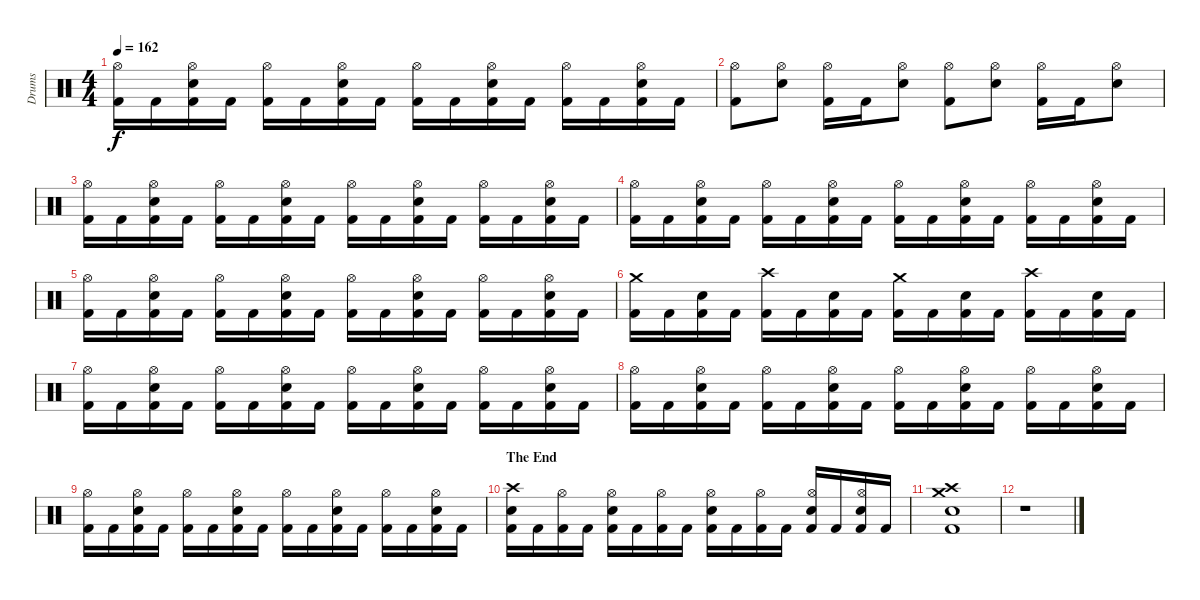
\track ("Drums" "Drums") {instrument percussion}
\staff {score}
\articulation defaults
\ts (4 4)
\tempo 162
\clef neutral
\ks c
("Kick (hit) 2" "Hi-Hat (open)").16{dy f} "Kick (hit) 2".16 ("Kick (hit) 2" "Snare (hit) 2" "Hi-Hat (open)").16 "Kick (hit) 2".16 ("Kick (hit) 2" "Hi-Hat (open)").16 "Kick (hit) 2".16 ("Kick (hit) 2" "Snare (hit) 2" "Hi-Hat (open)").16 "Kick (hit) 2".16 ("Kick (hit) 2" "Hi-Hat (open)").16 "Kick (hit) 2".16 ("Kick (hit) 2" "Snare (hit) 2" "Hi-Hat (open)").16 "Kick (hit) 2".16 ("Kick (hit) 2" "Hi-Hat (open)").16 "Kick (hit) 2".16 ("Kick (hit) 2" "Snare (hit) 2" "Hi-Hat (open)").16 "Kick (hit) 2".16 |
("Kick (hit) 2" "Hi-Hat (open)").8 ("Snare (hit) 2" "Hi-Hat (open)").8 ("Kick (hit) 2" "Hi-Hat (open)").16 "Kick (hit) 2".16 ("Snare (hit) 2" "Hi-Hat (open)").8 ("Kick (hit) 2" "Hi-Hat (open)").8 ("Snare (hit) 2" "Hi-Hat (open)").8 ("Kick (hit) 2" "Hi-Hat (open)").16 "Kick (hit) 2".16 ("Snare (hit) 2" "Hi-Hat (open)").8 |
\section ("" "")
("Kick (hit) 2" "Hi-Hat (open)").16 "Kick (hit) 2".16 ("Kick (hit) 2" "Snare (hit) 2" "Hi-Hat (open)").16 "Kick (hit) 2".16 ("Kick (hit) 2" "Hi-Hat (open)").16 "Kick (hit) 2".16 ("Kick (hit) 2" "Snare (hit) 2" "Hi-Hat (open)").16 "Kick (hit) 2".16 ("Kick (hit) 2" "Hi-Hat (open)").16 "Kick (hit) 2".16 ("Kick (hit) 2" "Snare (hit) 2" "Hi-Hat (open)").16 "Kick (hit) 2".16 ("Kick (hit) 2" "Hi-Hat (open)").16 "Kick (hit) 2".16 ("Kick (hit) 2" "Snare (hit) 2" "Hi-Hat (open)").16 "Kick (hit) 2".16 |
("Kick (hit) 2" "Hi-Hat (open)").16 "Kick (hit) 2".16 ("Kick (hit) 2" "Snare (hit) 2" "Hi-Hat (open)").16 "Kick (hit) 2".16 ("Kick (hit) 2" "Hi-Hat (open)").16 "Kick (hit) 2".16 ("Kick (hit) 2" "Snare (hit) 2" "Hi-Hat (open)").16 "Kick (hit) 2".16 ("Kick (hit) 2" "Hi-Hat (open)").16 "Kick (hit) 2".16 ("Kick (hit) 2" "Snare (hit) 2" "Hi-Hat (open)").16 "Kick (hit) 2".16 ("Kick (hit) 2" "Hi-Hat (open)").16 "Kick (hit) 2".16 ("Kick (hit) 2" "Snare (hit) 2" "Hi-Hat (open)").16 "Kick (hit) 2".16 |
("Kick (hit) 2" "Hi-Hat (open)").16 "Kick (hit) 2".16 ("Kick (hit) 2" "Snare (hit) 2" "Hi-Hat (open)").16 "Kick (hit) 2".16 ("Kick (hit) 2" "Hi-Hat (open)").16 "Kick (hit) 2".16 ("Kick (hit) 2" "Snare (hit) 2" "Hi-Hat (open)").16 "Kick (hit) 2".16 ("Kick (hit) 2" "Hi-Hat (open)").16 "Kick (hit) 2".16 ("Kick (hit) 2" "Snare (hit) 2" "Hi-Hat (open)").16 "Kick (hit) 2".16 ("Kick (hit) 2" "Hi-Hat (open)").16 "Kick (hit) 2".16 ("Kick (hit) 2" "Snare (hit) 2" "Hi-Hat (open)").16 "Kick (hit) 2".16 |
("Kick (hit) 2" "Crash medium (hit)").16 "Kick (hit) 2".16 ("Kick (hit) 2" "Snare (hit) 2").16 "Kick (hit) 2".16 ("Kick (hit) 2" "Crash high (hit)").16 "Kick (hit) 2".16 ("Kick (hit) 2" "Snare (hit) 2").16 "Kick (hit) 2".16 ("Kick (hit) 2" "Crash medium (hit)").16 "Kick (hit) 2".16 ("Kick (hit) 2" "Snare (hit) 2").16 "Kick (hit) 2".16 ("Kick (hit) 2" "Crash high (hit)").16 "Kick (hit) 2".16 ("Kick (hit) 2" "Snare (hit) 2").16 "Kick (hit) 2".16 |
("Kick (hit) 2" "Hi-Hat (open)").16 "Kick (hit) 2".16 ("Kick (hit) 2" "Snare (hit) 2" "Hi-Hat (open)").16 "Kick (hit) 2".16 ("Kick (hit) 2" "Hi-Hat (open)").16 "Kick (hit) 2".16 ("Kick (hit) 2" "Snare (hit) 2" "Hi-Hat (open)").16 "Kick (hit) 2".16 ("Kick (hit) 2" "Hi-Hat (open)").16 "Kick (hit) 2".16 ("Kick (hit) 2" "Snare (hit) 2" "Hi-Hat (open)").16 "Kick (hit) 2".16 ("Kick (hit) 2" "Hi-Hat (open)").16 "Kick (hit) 2".16 ("Kick (hit) 2" "Snare (hit) 2" "Hi-Hat (open)").16 "Kick (hit) 2".16 |
("Kick (hit) 2" "Hi-Hat (open)").16 "Kick (hit) 2".16 ("Kick (hit) 2" "Snare (hit) 2" "Hi-Hat (open)").16 "Kick (hit) 2".16 ("Kick (hit) 2" "Hi-Hat (open)").16 "Kick (hit) 2".16 ("Kick (hit) 2" "Snare (hit) 2" "Hi-Hat (open)").16 "Kick (hit) 2".16 ("Kick (hit) 2" "Hi-Hat (open)").16 "Kick (hit) 2".16 ("Kick (hit) 2" "Snare (hit) 2" "Hi-Hat (open)").16 "Kick (hit) 2".16 ("Kick (hit) 2" "Hi-Hat (open)").16 "Kick (hit) 2".16 ("Kick (hit) 2" "Snare (hit) 2" "Hi-Hat (open)").16 "Kick (hit) 2".16 |
("Kick (hit) 2" "Hi-Hat (open)").16 "Kick (hit) 2".16 ("Kick (hit) 2" "Snare (hit) 2" "Hi-Hat (open)").16 "Kick (hit) 2".16 ("Kick (hit) 2" "Hi-Hat (open)").16 "Kick (hit) 2".16 ("Kick (hit) 2" "Snare (hit) 2" "Hi-Hat (open)").16 "Kick (hit) 2".16 ("Kick (hit) 2" "Hi-Hat (open)").16 "Kick (hit) 2".16 ("Kick (hit) 2" "Snare (hit) 2" "Hi-Hat (open)").16 "Kick (hit) 2".16 ("Kick (hit) 2" "Hi-Hat (open)").16 "Kick (hit) 2".16 ("Kick (hit) 2" "Snare (hit) 2" "Hi-Hat (open)").16 "Kick (hit) 2".16 |
\section ("" "The End")
("Kick (hit) 2" "Snare (hit) 2" "Crash high (hit)").16 "Kick (hit) 2".16 ("Kick (hit) 2" "Hi-Hat (open)").16 "Kick (hit) 2".16 ("Kick (hit) 2" "Snare (hit) 2" "Hi-Hat (open)").16 "Kick (hit) 2".16 ("Kick (hit) 2" "Hi-Hat (open)").16 "Kick (hit) 2".16 ("Kick (hit) 2" "Snare (hit) 2" "Hi-Hat (open)").16 "Kick (hit) 2".16 ("Kick (hit) 2" "Hi-Hat (open)").16 "Kick (hit) 2".16 ("Kick (hit) 2" "Snare (hit) 2" "Hi-Hat (open)").16 "Kick (hit) 2".16 ("Kick (hit) 2" "Snare (hit) 2" "Hi-Hat (open)").16 "Kick (hit) 2".16 |
("Kick (hit) 2" "Snare (hit) 2" "Crash high (hit)" "Crash medium (hit)").1 |
r.1
